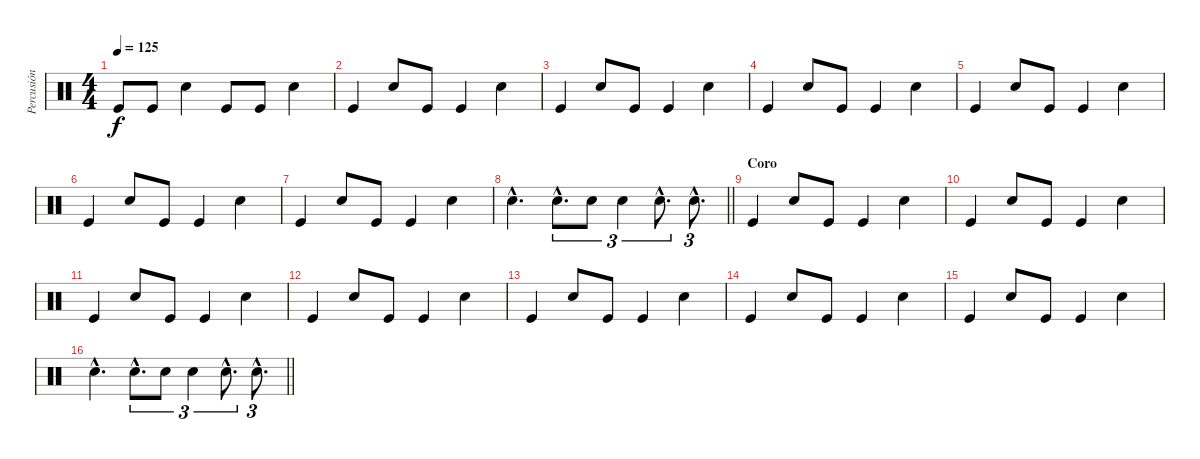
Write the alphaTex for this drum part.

\track ("Percusión" "Percusión") {instrument percussion}
\staff {score}
\articulation defaults
\ts (4 4)
\tempo 125
\clef neutral
\ks c "Kick (hit)".8{dy f} "Kick (hit)".8 "Snare (hit) 2".4 "Kick (hit)".8 "Kick (hit)".8 "Snare (hit) 2".4
|
"Kick (hit)".4 "Snare (hit) 2".8 "Kick (hit)".8 "Kick (hit)".4 "Snare (hit) 2".4 |
"Kick (hit)".4 "Snare (hit) 2".8 "Kick (hit)".8 "Kick (hit)".4 "Snare (hit) 2".4 |
"Kick (hit)".4 "Snare (hit) 2".8 "Kick (hit)".8 "Kick (hit)".4 "Snare (hit) 2".4 |
"Kick (hit)".4 "Snare (hit) 2".8 "Kick (hit)".8 "Kick (hit)".4 "Snare (hit) 2".4 |
"Kick (hit)".4 "Snare (hit) 2".8 "Kick (hit)".8 "Kick (hit)".4 "Snare (hit) 2".4 |
"Kick (hit)".4 "Snare (hit) 2".8 "Kick (hit)".8 "Kick (hit)".4 "Snare (hit) 2".4 |
\barLineRight lightlight "Snare (hit) 2"{hac}.4{d} "Snare (hit) 2"{hac}.8{d tu (3 2)} "Snare (hit) 2".8{tu (3 2)} "Snare (hit) 2".4{tu (3 2)} "Snare (hit) 2"{hac}.8{d tu (3 2)} "Snare (hit) 2"{hac}.8{d tu (3 2)}
|
\section ("" "Coro")
"Kick (hit)".4 "Snare (hit) 2".8 "Kick (hit)".8 "Kick (hit)".4 "Snare (hit) 2".4 |
"Kick (hit)".4 "Snare (hit) 2".8 "Kick (hit)".8 "Kick (hit)".4 "Snare (hit) 2".4 |
"Kick (hit)".4 "Snare (hit) 2".8 "Kick (hit)".8 "Kick (hit)".4 "Snare (hit) 2".4 |
"Kick (hit)".4 "Snare (hit) 2".8 "Kick (hit)".8 "Kick (hit)".4 "Snare (hit) 2".4 |
"Kick (hit)".4 "Snare (hit) 2".8 "Kick (hit)".8 "Kick (hit)".4 "Snare (hit) 2".4 |
"Kick (hit)".4 "Snare (hit) 2".8 "Kick (hit)".8 "Kick (hit)".4 "Snare (hit) 2".4 |
"Kick (hit)".4 "Snare (hit) 2".8 "Kick (hit)".8 "Kick (hit)".4 "Snare (hit) 2".4 |
\barLineRight lightlight "Snare (hit) 2"{hac}.4{d} "Snare (hit) 2"{hac}.8{d tu (3 2)} "Snare (hit) 2".8{tu (3 2)} "Snare (hit) 2".4{tu (3 2)} "Snare (hit) 2"{hac}.8{d tu (3 2)} "Snare (hit) 2"{hac}.8{d tu (3 2)}
